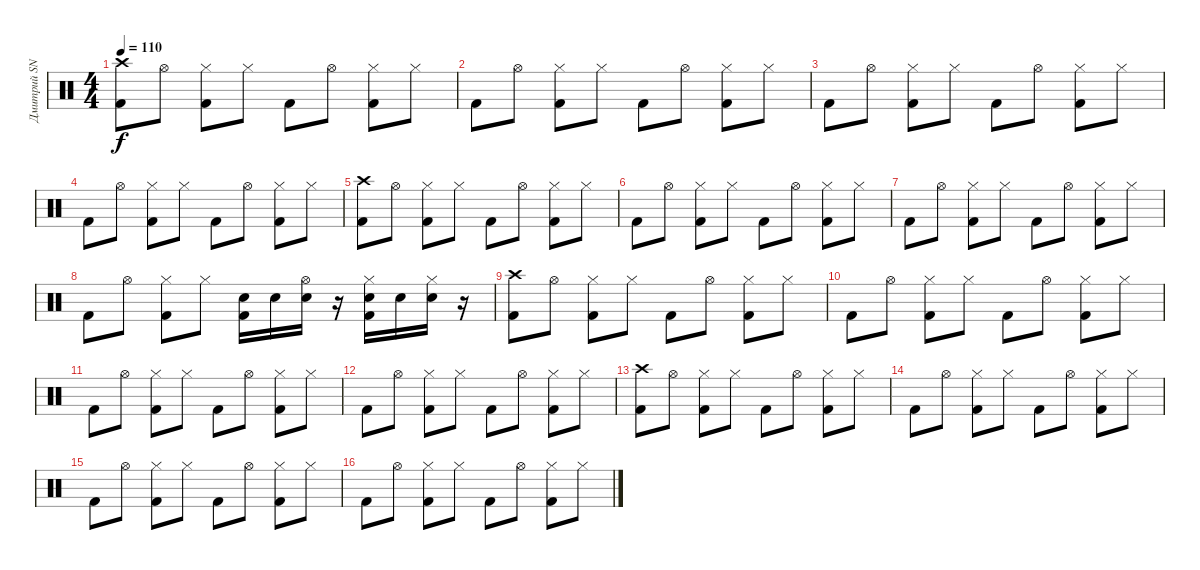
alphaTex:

\track ("Дмитрий SNAKE Хакимов" "Дмитрий SN") {instrument percussion}
\staff {score}
\articulation defaults
\ts (4 4)
\tempo 110
\clef neutral
\ks c
("Crash high (hit)" "Kick (hit) 2").8{dy f} "Hi-Hat (open)".8 ("Hi-Hat (closed)" "Kick (hit) 2").8 "Hi-Hat (closed)".8 "Kick (hit) 2".8 "Hi-Hat (open)".8 ("Hi-Hat (closed)" "Kick (hit) 2").8 "Hi-Hat (closed)".8 |
"Kick (hit) 2".8 "Hi-Hat (open)".8 ("Hi-Hat (closed)" "Kick (hit) 2").8 "Hi-Hat (closed)".8 "Kick (hit) 2".8 "Hi-Hat (open)".8 ("Hi-Hat (closed)" "Kick (hit) 2").8 "Hi-Hat (closed)".8 |
"Kick (hit) 2".8 "Hi-Hat (open)".8 ("Hi-Hat (closed)" "Kick (hit) 2").8 "Hi-Hat (closed)".8 "Kick (hit) 2".8 "Hi-Hat (open)".8 ("Hi-Hat (closed)" "Kick (hit) 2").8 "Hi-Hat (closed)".8 |
"Kick (hit) 2".8 "Hi-Hat (open)".8 ("Hi-Hat (closed)" "Kick (hit) 2").8 "Hi-Hat (closed)".8 "Kick (hit) 2".8 "Hi-Hat (open)".8 ("Hi-Hat (closed)" "Kick (hit) 2").8 "Hi-Hat (closed)".8 |
("Crash high (hit)" "Kick (hit) 2").8 "Hi-Hat (open)".8 ("Hi-Hat (closed)" "Kick (hit) 2").8 "Hi-Hat (closed)".8 "Kick (hit) 2".8 "Hi-Hat (open)".8 ("Hi-Hat (closed)" "Kick (hit) 2").8 "Hi-Hat (closed)".8 |
"Kick (hit) 2".8 "Hi-Hat (open)".8 ("Hi-Hat (closed)" "Kick (hit) 2").8 "Hi-Hat (closed)".8 "Kick (hit) 2".8 "Hi-Hat (open)".8 ("Hi-Hat (closed)" "Kick (hit) 2").8 "Hi-Hat (closed)".8 |
"Kick (hit) 2".8 "Hi-Hat (open)".8 ("Hi-Hat (closed)" "Kick (hit) 2").8 "Hi-Hat (closed)".8 "Kick (hit) 2".8 "Hi-Hat (open)".8 ("Hi-Hat (closed)" "Kick (hit) 2").8 "Hi-Hat (closed)".8 |
"Kick (hit) 2".8 "Hi-Hat (open)".8 ("Hi-Hat (closed)" "Kick (hit) 2").8 "Hi-Hat (closed)".8 ("Snare (hit) 2" "Kick (hit) 2").16 "Snare (hit) 2".16 ("Hi-Hat (open)" "Snare (hit) 2").16 r.16 ("Hi-Hat (closed)" "Snare (hit) 2" "Kick (hit) 2").16 "Snare (hit) 2".16 ("Hi-Hat (closed)" "Snare (hit) 2").16 r.16 |
("Crash high (hit)" "Kick (hit) 2").8 "Hi-Hat (open)".8 ("Hi-Hat (closed)" "Kick (hit) 2").8 "Hi-Hat (closed)".8 "Kick (hit) 2".8 "Hi-Hat (open)".8 ("Hi-Hat (closed)" "Kick (hit) 2").8 "Hi-Hat (closed)".8 |
"Kick (hit) 2".8 "Hi-Hat (open)".8 ("Hi-Hat (closed)" "Kick (hit) 2").8 "Hi-Hat (closed)".8 "Kick (hit) 2".8 "Hi-Hat (open)".8 ("Hi-Hat (closed)" "Kick (hit) 2").8 "Hi-Hat (closed)".8 |
"Kick (hit) 2".8 "Hi-Hat (open)".8 ("Hi-Hat (closed)" "Kick (hit) 2").8 "Hi-Hat (closed)".8 "Kick (hit) 2".8 "Hi-Hat (open)".8 ("Hi-Hat (closed)" "Kick (hit) 2").8 "Hi-Hat (closed)".8 |
"Kick (hit) 2".8 "Hi-Hat (open)".8 ("Hi-Hat (closed)" "Kick (hit) 2").8 "Hi-Hat (closed)".8 "Kick (hit) 2".8 "Hi-Hat (open)".8 ("Hi-Hat (closed)" "Kick (hit) 2").8 "Hi-Hat (closed)".8 |
("Crash high (hit)" "Kick (hit) 2").8 "Hi-Hat (open)".8 ("Hi-Hat (closed)" "Kick (hit) 2").8 "Hi-Hat (closed)".8 "Kick (hit) 2".8 "Hi-Hat (open)".8 ("Hi-Hat (closed)" "Kick (hit) 2").8 "Hi-Hat (closed)".8 |
"Kick (hit) 2".8 "Hi-Hat (open)".8 ("Hi-Hat (closed)" "Kick (hit) 2").8 "Hi-Hat (closed)".8 "Kick (hit) 2".8 "Hi-Hat (open)".8 ("Hi-Hat (closed)" "Kick (hit) 2").8 "Hi-Hat (closed)".8 |
"Kick (hit) 2".8 "Hi-Hat (open)".8 ("Hi-Hat (closed)" "Kick (hit) 2").8 "Hi-Hat (closed)".8 "Kick (hit) 2".8 "Hi-Hat (open)".8 ("Hi-Hat (closed)" "Kick (hit) 2").8 "Hi-Hat (closed)".8 |
"Kick (hit) 2".8 "Hi-Hat (open)".8 ("Hi-Hat (closed)" "Kick (hit) 2").8 "Hi-Hat (closed)".8 "Kick (hit) 2".8 "Hi-Hat (open)".8 ("Hi-Hat (closed)" "Kick (hit) 2").8 "Hi-Hat (closed)".8
